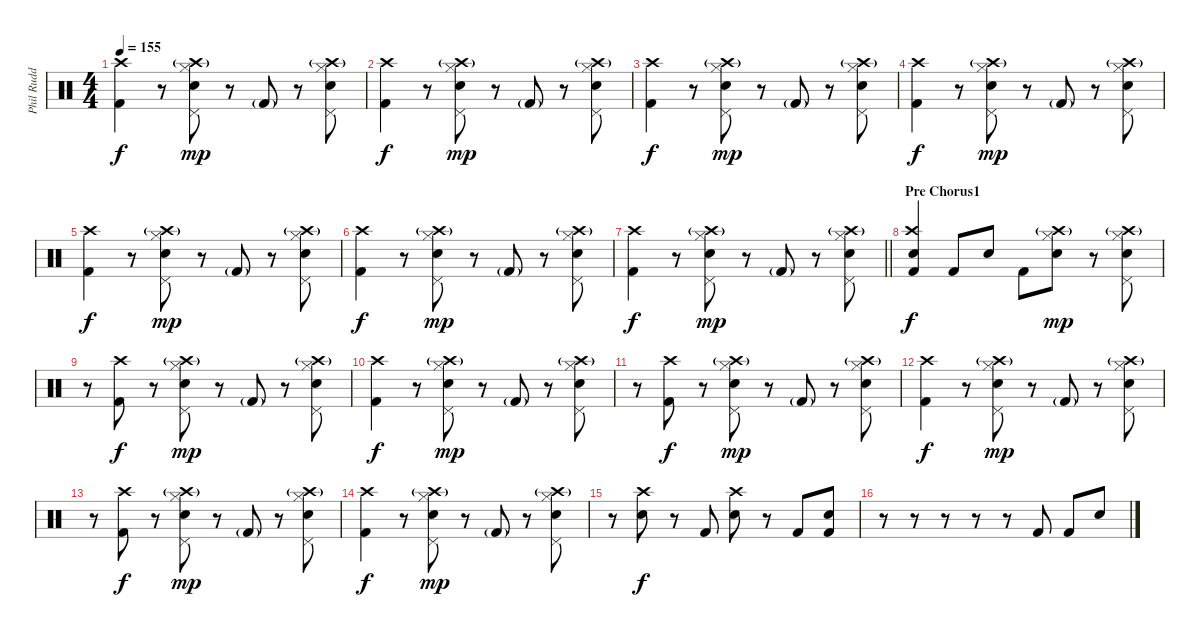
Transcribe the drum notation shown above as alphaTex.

\track ("Phil Rudd" "Phil Rudd") {instrument percussion}
\staff {score}
\articulation defaults
\ts (4 4)
\tempo 155
\clef neutral
\ks c
("Kick (hit) 2" "Crash high (hit)").4{dy f} r.8 ("Snare (hit) 2" "Pedal Hi-Hat (hit)" "Hi-Hat (closed)" "Crash high (hit)"{g}).8{dy mp} r.8 "Kick (hit) 2"{g}.8 r.8 ("Snare (hit) 2" "Pedal Hi-Hat (hit)" "Hi-Hat (closed)" "Crash high (hit)"{g}).8 |
("Kick (hit) 2" "Crash high (hit)").4{dy f} r.8 ("Snare (hit) 2" "Pedal Hi-Hat (hit)" "Hi-Hat (closed)" "Crash high (hit)"{g}).8{dy mp} r.8 "Kick (hit) 2"{g}.8 r.8 ("Snare (hit) 2" "Pedal Hi-Hat (hit)" "Hi-Hat (closed)" "Crash high (hit)"{g}).8 |
("Kick (hit) 2" "Crash high (hit)").4{dy f} r.8 ("Snare (hit) 2" "Pedal Hi-Hat (hit)" "Hi-Hat (closed)" "Crash high (hit)"{g}).8{dy mp} r.8 "Kick (hit) 2"{g}.8 r.8 ("Snare (hit) 2" "Pedal Hi-Hat (hit)" "Hi-Hat (closed)" "Crash high (hit)"{g}).8 |
("Kick (hit) 2" "Crash high (hit)").4{dy f} r.8 ("Snare (hit) 2" "Pedal Hi-Hat (hit)" "Hi-Hat (closed)" "Crash high (hit)"{g}).8{dy mp} r.8 "Kick (hit) 2"{g}.8 r.8 ("Snare (hit) 2" "Pedal Hi-Hat (hit)" "Hi-Hat (closed)" "Crash high (hit)"{g}).8 |
("Kick (hit) 2" "Crash high (hit)").4{dy f} r.8 ("Snare (hit) 2" "Pedal Hi-Hat (hit)" "Hi-Hat (closed)" "Crash high (hit)"{g}).8{dy mp} r.8 "Kick (hit) 2"{g}.8 r.8 ("Snare (hit) 2" "Pedal Hi-Hat (hit)" "Hi-Hat (closed)" "Crash high (hit)"{g}).8 |
("Kick (hit) 2" "Crash high (hit)").4{dy f} r.8 ("Snare (hit) 2" "Pedal Hi-Hat (hit)" "Hi-Hat (closed)" "Crash high (hit)"{g}).8{dy mp} r.8 "Kick (hit) 2"{g}.8 r.8 ("Snare (hit) 2" "Pedal Hi-Hat (hit)" "Hi-Hat (closed)" "Crash high (hit)"{g}).8 |
\barLineRight lightlight
("Kick (hit) 2" "Crash high (hit)").4{dy f} r.8 ("Snare (hit) 2" "Pedal Hi-Hat (hit)" "Hi-Hat (closed)" "Crash high (hit)"{g}).8{dy mp} r.8 "Kick (hit) 2"{g}.8 r.8 ("Snare (hit) 2" "Pedal Hi-Hat (hit)" "Hi-Hat (closed)" "Crash high (hit)"{g}).8 |
\section ("" "Pre Chorus1")
("Kick (hit) 2" "Crash high (hit)" "Snare (hit) 2").4{dy f} "Kick (hit) 2".8 "Snare (hit) 2".8 "Kick (hit) 2".8 ("Snare (hit) 2" "Hi-Hat (closed)" "Crash high (hit)"{g}).8{dy mp} r.8 ("Snare (hit) 2" "Pedal Hi-Hat (hit)" "Hi-Hat (closed)" "Crash high (hit)"{g}).8 |
r.8 ("Crash high (hit)" "Kick (hit) 2").8{dy f} r.8 ("Snare (hit) 2" "Pedal Hi-Hat (hit)" "Hi-Hat (closed)" "Crash high (hit)"{g}).8{dy mp} r.8 "Kick (hit) 2"{g}.8 r.8 ("Snare (hit) 2" "Pedal Hi-Hat (hit)" "Hi-Hat (closed)" "Crash high (hit)"{g}).8 |
("Kick (hit) 2" "Crash high (hit)").4{dy f} r.8 ("Snare (hit) 2" "Pedal Hi-Hat (hit)" "Hi-Hat (closed)" "Crash high (hit)"{g}).8{dy mp} r.8 "Kick (hit) 2"{g}.8 r.8 ("Snare (hit) 2" "Pedal Hi-Hat (hit)" "Hi-Hat (closed)" "Crash high (hit)"{g}).8 |
r.8 ("Crash high (hit)" "Kick (hit) 2").8{dy f} r.8 ("Snare (hit) 2" "Pedal Hi-Hat (hit)" "Hi-Hat (closed)" "Crash high (hit)"{g}).8{dy mp} r.8 "Kick (hit) 2"{g}.8 r.8 ("Snare (hit) 2" "Pedal Hi-Hat (hit)" "Hi-Hat (closed)" "Crash high (hit)"{g}).8 |
("Kick (hit) 2" "Crash high (hit)").4{dy f} r.8 ("Snare (hit) 2" "Pedal Hi-Hat (hit)" "Hi-Hat (closed)" "Crash high (hit)"{g}).8{dy mp} r.8 "Kick (hit) 2"{g}.8 r.8 ("Snare (hit) 2" "Pedal Hi-Hat (hit)" "Hi-Hat (closed)" "Crash high (hit)"{g}).8 |
r.8 ("Crash high (hit)" "Kick (hit) 2").8{dy f} r.8 ("Snare (hit) 2" "Pedal Hi-Hat (hit)" "Hi-Hat (closed)" "Crash high (hit)"{g}).8{dy mp} r.8 "Kick (hit) 2"{g}.8 r.8 ("Snare (hit) 2" "Pedal Hi-Hat (hit)" "Hi-Hat (closed)" "Crash high (hit)"{g}).8 |
("Kick (hit) 2" "Crash high (hit)").4{dy f} r.8 ("Snare (hit) 2" "Pedal Hi-Hat (hit)" "Hi-Hat (closed)" "Crash high (hit)"{g}).8{dy mp} r.8 "Kick (hit) 2"{g}.8 r.8 ("Snare (hit) 2" "Pedal Hi-Hat (hit)" "Hi-Hat (closed)" "Crash high (hit)"{g}).8 |
r.8 ("Crash high (hit)" "Snare (hit) 2").8{dy f} r.8 "Kick (hit) 2".8 ("Crash high (hit)" "Snare (hit) 2").8 r.8 "Kick (hit) 2".8 ("Kick (hit) 2" "Snare (hit) 2").8 |
r.8 r.8 r.8 r.8 r.8 "Kick (hit) 2".8 "Kick (hit) 2".8 "Snare (hit) 2".8
